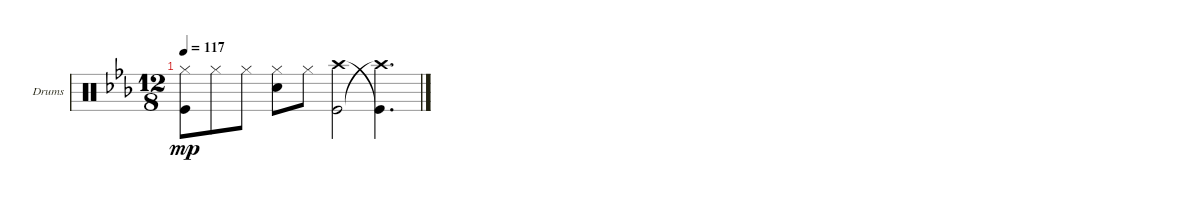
\defaultSystemsLayout 4
\bracketExtendMode groupsimilarinstruments
\firstSystemTrackNameOrientation horizontal
\otherSystemsTrackNameOrientation horizontal
\track ("Drums (Simplified)" "Drums") {instrument percussion}
\staff {score}
\articulation defaults
\ts (12 8)
\tempo 117
\clef neutral
\ks eb
("Kick (hit)" "Hi-Hat (closed)").8{dy mp} "Hi-Hat (closed)".8 "Hi-Hat (closed)".8 ("Hi-Hat (closed)" "Snare (hit) 2").8 "Hi-Hat (closed)".8 ("Kick (hit)" "Crash high (hit)").2 ("Crash high (hit)"{t} "Kick (hit)"{t}).4{d}
